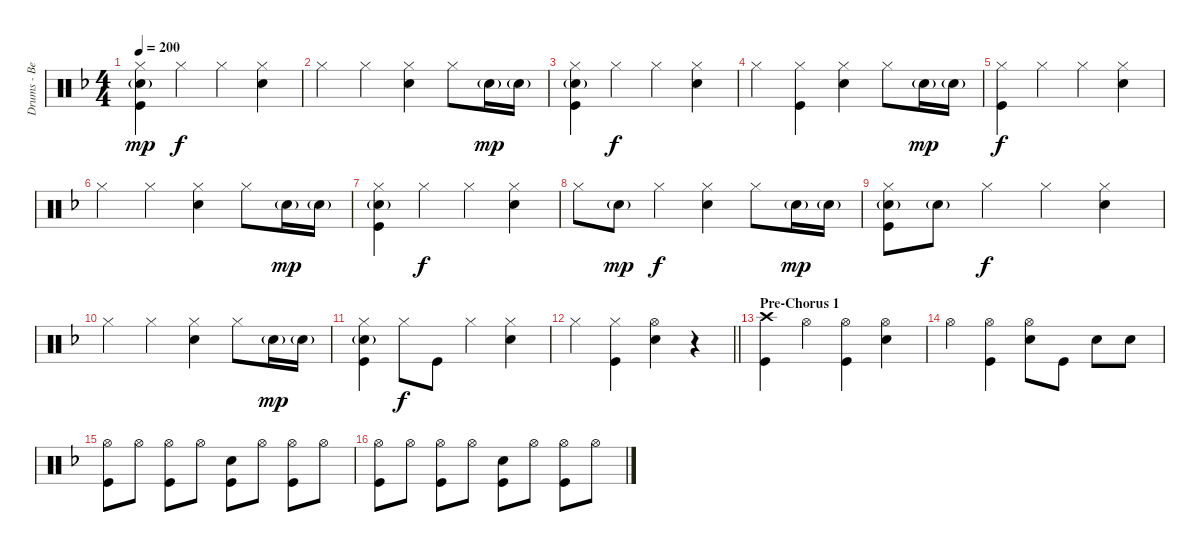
\track ("Drums - Ben Johnston" "Drums - Be") {instrument percussion}
\staff {score}
\articulation defaults
\ts (4 4)
\tempo 200
\clef neutral
\ks f
("Hi-Hat (closed)" "Snare (hit) 2"{g} "Kick (hit)").4{dy mp} "Hi-Hat (closed)".4{dy f} "Hi-Hat (closed)".4 ("Hi-Hat (closed)" "Snare (hit) 2").4 |
"Hi-Hat (closed)".4 "Hi-Hat (closed)".4 ("Hi-Hat (closed)" "Snare (hit) 2").4 "Hi-Hat (closed)".8 "Snare (hit) 2"{g}.16{dy mp} "Snare (hit) 2"{g}.16 |
("Hi-Hat (closed)" "Snare (hit) 2"{g} "Kick (hit)").4 "Hi-Hat (closed)".4{dy f} "Hi-Hat (closed)".4 ("Hi-Hat (closed)" "Snare (hit) 2").4 |
"Hi-Hat (closed)".4 ("Hi-Hat (closed)" "Kick (hit)").4 ("Hi-Hat (closed)" "Snare (hit) 2").4 "Hi-Hat (closed)".8 "Snare (hit) 2"{g}.16{dy mp} "Snare (hit) 2"{g}.16 |
("Hi-Hat (closed)" "Kick (hit)").4{dy f} "Hi-Hat (closed)".4 "Hi-Hat (closed)".4 ("Hi-Hat (closed)" "Snare (hit) 2").4 |
"Hi-Hat (closed)".4 "Hi-Hat (closed)".4 ("Hi-Hat (closed)" "Snare (hit) 2").4 "Hi-Hat (closed)".8 "Snare (hit) 2"{g}.16{dy mp} "Snare (hit) 2"{g}.16 |
("Hi-Hat (closed)" "Snare (hit) 2"{g} "Kick (hit)").4 "Hi-Hat (closed)".4{dy f} "Hi-Hat (closed)".4 ("Hi-Hat (closed)" "Snare (hit) 2").4 |
"Hi-Hat (closed)".8 "Snare (hit) 2"{g}.8{dy mp} "Hi-Hat (closed)".4{dy f} ("Hi-Hat (closed)" "Snare (hit) 2").4 "Hi-Hat (closed)".8 "Snare (hit) 2"{g}.16{dy mp} "Snare (hit) 2"{g}.16 |
("Hi-Hat (closed)" "Snare (hit) 2"{g} "Kick (hit)").8 "Snare (hit) 2"{g}.8 "Hi-Hat (closed)".4{dy f} "Hi-Hat (closed)".4 ("Hi-Hat (closed)" "Snare (hit) 2").4 |
"Hi-Hat (closed)".4 "Hi-Hat (closed)".4 ("Hi-Hat (closed)" "Snare (hit) 2").4 "Hi-Hat (closed)".8 "Snare (hit) 2"{g}.16{dy mp} "Snare (hit) 2"{g}.16 |
("Hi-Hat (closed)" "Snare (hit) 2"{g} "Kick (hit)").4 "Hi-Hat (closed)".8{dy f} "Kick (hit)".8 "Hi-Hat (closed)".4 ("Hi-Hat (closed)" "Snare (hit) 2").4 |
\barLineRight lightlight "Hi-Hat (closed)".4
("Hi-Hat (closed)" "Kick (hit)").4 ("Hi-Hat (open)" "Snare (hit) 2").4 r.4 |
\section ("" "Pre-Chorus 1")
("Crash high (hit)" "Kick (hit)").4 "Hi-Hat (open)".4 ("Hi-Hat (open)" "Kick (hit)").4 ("Hi-Hat (open)" "Snare (hit) 2").4 |
"Hi-Hat (open)".4 ("Hi-Hat (open)" "Kick (hit)").4 ("Hi-Hat (open)" "Snare (hit) 2").8 "Kick (hit)".8 "Snare (hit) 2".8 "Snare (hit) 2".8 |
("Hi-Hat (open)" "Kick (hit)").8 "Hi-Hat (open)".8 ("Hi-Hat (open)" "Kick (hit)").8 "Hi-Hat (open)".8 ("Snare (hit) 2" "Kick (hit)").8 "Hi-Hat (open)".8 ("Hi-Hat (open)" "Kick (hit)").8 "Hi-Hat (open)".8 |
("Hi-Hat (open)" "Kick (hit)").8 "Hi-Hat (open)".8 ("Hi-Hat (open)" "Kick (hit)").8 "Hi-Hat (open)".8 ("Snare (hit) 2" "Kick (hit)").8 "Hi-Hat (open)".8 ("Hi-Hat (open)" "Kick (hit)").8 "Hi-Hat (open)".8
